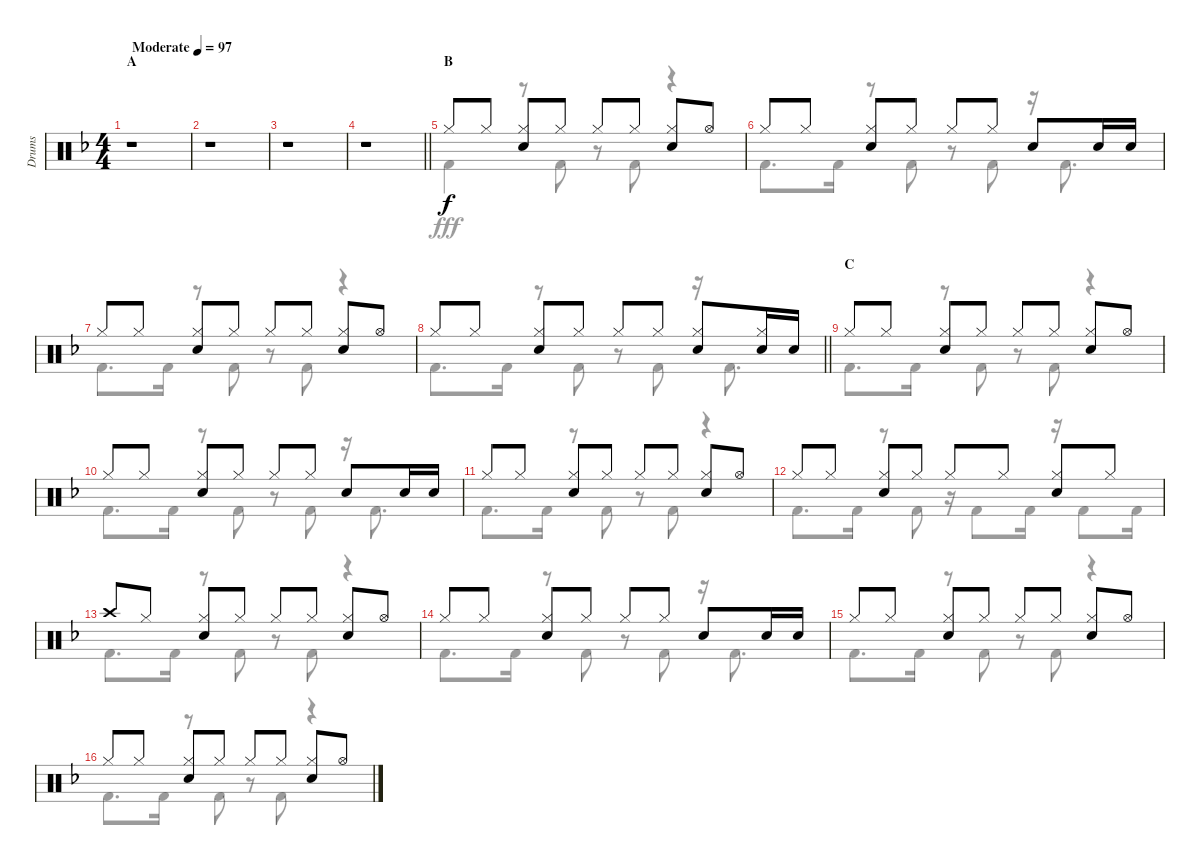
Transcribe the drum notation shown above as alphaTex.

\track ("Drums" "Drums") {instrument percussion}
\staff {score}
\articulation defaults
\voice
\ts (4 4)
\section ("" "A")
\tempo (97 "Moderate")
\clef neutral
\ks f
r.1{dy f} |
r.1 |
r.1 |
\barLineRight lightlight
r.1 |
\section ("" "B")
"Hi-Hat (closed)".8 "Hi-Hat (closed)".8 ("Hi-Hat (closed)" "Snare (hit) 2").8 "Hi-Hat (closed)".8 "Hi-Hat (closed)".8 "Hi-Hat (closed)".8 ("Hi-Hat (closed)" "Snare (hit) 2").8 "Hi-Hat (open)".8 |
"Hi-Hat (closed)".8 "Hi-Hat (closed)".8 ("Hi-Hat (closed)" "Snare (hit) 2").8 "Hi-Hat (closed)".8 "Hi-Hat (closed)".8 "Hi-Hat (closed)".8 "Snare (hit) 2".8 "Snare (hit) 2".16 "Snare (hit) 2".16 |
"Hi-Hat (closed)".8 "Hi-Hat (closed)".8 ("Hi-Hat (closed)" "Snare (hit) 2").8 "Hi-Hat (closed)".8 "Hi-Hat (closed)".8 "Hi-Hat (closed)".8 ("Hi-Hat (closed)" "Snare (hit) 2").8 "Hi-Hat (open)".8 |
\barLineRight lightlight "Hi-Hat (closed)".8 "Hi-Hat (closed)".8
("Hi-Hat (closed)" "Snare (hit) 2").8 "Hi-Hat (closed)".8 "Hi-Hat (closed)".8 "Hi-Hat (closed)".8 ("Hi-Hat (closed)" "Snare (hit) 2").8 ("Hi-Hat (closed)" "Snare (hit) 2").16 "Snare (hit) 2".16 |
\section ("" "C")
"Hi-Hat (closed)".8 "Hi-Hat (closed)".8 ("Hi-Hat (closed)" "Snare (hit) 2").8 "Hi-Hat (closed)".8 "Hi-Hat (closed)".8 "Hi-Hat (closed)".8 ("Hi-Hat (closed)" "Snare (hit) 2").8 "Hi-Hat (open)".8 |
"Hi-Hat (closed)".8 "Hi-Hat (closed)".8 ("Hi-Hat (closed)" "Snare (hit) 2").8 "Hi-Hat (closed)".8 "Hi-Hat (closed)".8 "Hi-Hat (closed)".8 "Snare (hit) 2".8 "Snare (hit) 2".16 "Snare (hit) 2".16 |
"Hi-Hat (closed)".8 "Hi-Hat (closed)".8 ("Hi-Hat (closed)" "Snare (hit) 2").8 "Hi-Hat (closed)".8 "Hi-Hat (closed)".8 "Hi-Hat (closed)".8 ("Hi-Hat (closed)" "Snare (hit) 2").8 "Hi-Hat (open)".8 |
"Hi-Hat (closed)".8 "Hi-Hat (closed)".8 ("Hi-Hat (closed)" "Snare (hit) 2").8 "Hi-Hat (closed)".8 "Hi-Hat (closed)".8 "Hi-Hat (closed)".8 ("Hi-Hat (closed)" "Snare (hit) 2").8 "Hi-Hat (closed)".8 |
"Crash high (hit)".8 "Hi-Hat (closed)".8 ("Hi-Hat (closed)" "Snare (hit) 2").8 "Hi-Hat (closed)".8 "Hi-Hat (closed)".8 "Hi-Hat (closed)".8 ("Hi-Hat (closed)" "Snare (hit) 2").8 "Hi-Hat (open)".8 |
"Hi-Hat (closed)".8 "Hi-Hat (closed)".8 ("Hi-Hat (closed)" "Snare (hit) 2").8 "Hi-Hat (closed)".8 "Hi-Hat (closed)".8 "Hi-Hat (closed)".8 "Snare (hit) 2".8 "Snare (hit) 2".16 "Snare (hit) 2".16 |
"Hi-Hat (closed)".8 "Hi-Hat (closed)".8 ("Hi-Hat (closed)" "Snare (hit) 2").8 "Hi-Hat (closed)".8 "Hi-Hat (closed)".8 "Hi-Hat (closed)".8 ("Hi-Hat (closed)" "Snare (hit) 2").8 "Hi-Hat (open)".8 |
"Hi-Hat (closed)".8 "Hi-Hat (closed)".8 ("Hi-Hat (closed)" "Snare (hit) 2").8 "Hi-Hat (closed)".8 "Hi-Hat (closed)".8 "Hi-Hat (closed)".8 ("Hi-Hat (closed)" "Snare (hit) 2").8 "Hi-Hat (open)".8
\voice
\clef neutral
\ottava regular
\simile none
\ks f
r.1{dy fff} |
r.1 |
r.1 |
\barLineRight lightlight
r.1 |
"Kick (hit) 2".4 r.8 "Kick (hit) 2".8 r.8 "Kick (hit) 2".8 r.4 |
"Kick (hit) 2".8{d} "Kick (hit) 2".16 r.8 "Kick (hit) 2".8 r.8 "Kick (hit) 2".8 r.16 "Kick (hit) 2".8{d} |
"Kick (hit) 2".8{d} "Kick (hit) 2".16 r.8 "Kick (hit) 2".8 r.8 "Kick (hit) 2".8 r.4 |
\barLineRight lightlight "Kick (hit) 2".8{d} "Kick (hit) 2".16
r.8 "Kick (hit) 2".8 r.8 "Kick (hit) 2".8 r.16 "Kick (hit) 2".8{d} |
"Kick (hit) 2".8{d} "Kick (hit) 2".16 r.8 "Kick (hit) 2".8 r.8 "Kick (hit) 2".8 r.4 |
"Kick (hit) 2".8{d} "Kick (hit) 2".16 r.8 "Kick (hit) 2".8 r.8 "Kick (hit) 2".8 r.16 "Kick (hit) 2".8{d} |
"Kick (hit) 2".8{d} "Kick (hit) 2".16 r.8 "Kick (hit) 2".8 r.8 "Kick (hit) 2".8 r.4 |
"Kick (hit) 2".8{d} "Kick (hit) 2".16 r.8 "Kick (hit) 2".8 r.16 "Kick (hit) 2".8 "Kick (hit) 2".16 r.16 "Kick (hit) 2".8 "Kick (hit) 2".16 |
"Kick (hit) 2".8{d} "Kick (hit) 2".16 r.8 "Kick (hit) 2".8 r.8 "Kick (hit) 2".8 r.4 |
"Kick (hit) 2".8{d} "Kick (hit) 2".16 r.8 "Kick (hit) 2".8 r.8 "Kick (hit) 2".8 r.16 "Kick (hit) 2".8{d} |
"Kick (hit) 2".8{d} "Kick (hit) 2".16 r.8 "Kick (hit) 2".8 r.8 "Kick (hit) 2".8 r.4 |
"Kick (hit) 2".8{d} "Kick (hit) 2".16 r.8 "Kick (hit) 2".8 r.8 "Kick (hit) 2".8 r.4
